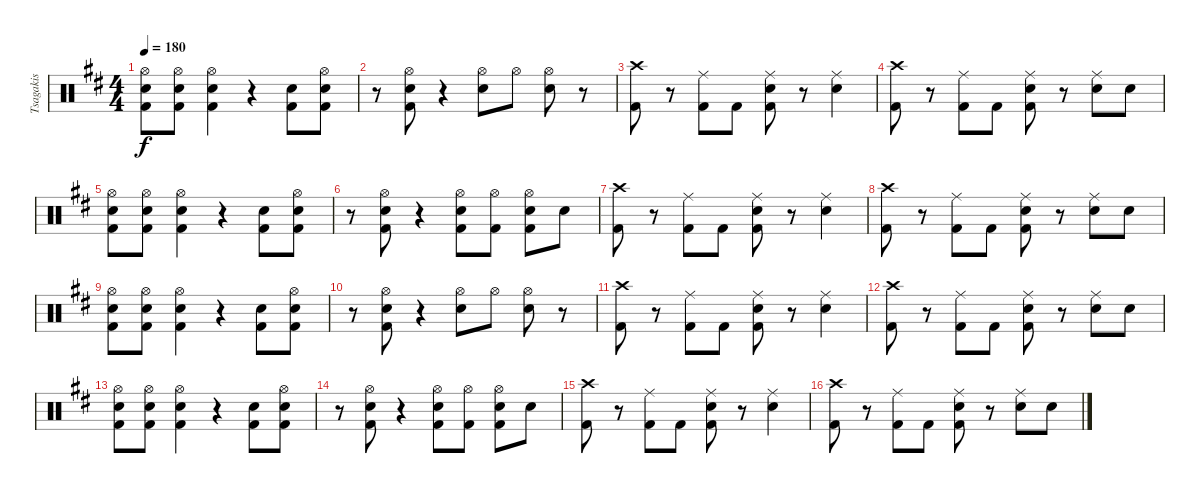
\track ("Tsagakis" "Tsagakis") {instrument percussion}
\staff {score}
\articulation defaults
\ts (4 4)
\tempo 180
\clef neutral
\ks d
("Hi-Hat (open)" "Electric Snare (hit)" "Kick (hit) 2").8{dy f} ("Hi-Hat (open)" "Electric Snare (hit)" "Kick (hit) 2").8 ("Hi-Hat (open)" "Electric Snare (hit)" "Kick (hit) 2").4 r.4 ("Electric Snare (hit)" "Kick (hit) 2").8 ("Hi-Hat (open)" "Electric Snare (hit)" "Kick (hit) 2").8 |
r.8 ("Hi-Hat (open)" "Electric Snare (hit)" "Kick (hit) 2").8 r.4 ("Hi-Hat (open)" "Electric Snare (hit)").8 "Hi-Hat (open)".8 ("Hi-Hat (open)" "Electric Snare (hit)").8 r.8 |
("Crash high (hit)" "Kick (hit) 2").8 r.8 ("Ride (middle)" "Kick (hit) 2").8 "Kick (hit) 2".8 ("Ride (middle)" "Electric Snare (hit)" "Kick (hit) 2").8 r.8 ("Ride (middle)" "Electric Snare (hit)").4 |
("Crash high (hit)" "Kick (hit) 2").8 r.8 ("Ride (middle)" "Kick (hit) 2").8 "Kick (hit) 2".8 ("Ride (middle)" "Electric Snare (hit)" "Kick (hit) 2").8 r.8 ("Ride (middle)" "Electric Snare (hit)").8 "Electric Snare (hit)".8 |
("Hi-Hat (open)" "Electric Snare (hit)" "Kick (hit) 2").8 ("Hi-Hat (open)" "Electric Snare (hit)" "Kick (hit) 2").8 ("Hi-Hat (open)" "Electric Snare (hit)" "Kick (hit) 2").4 r.4 ("Electric Snare (hit)" "Kick (hit) 2").8 ("Hi-Hat (open)" "Electric Snare (hit)" "Kick (hit) 2").8 |
r.8 ("Hi-Hat (open)" "Electric Snare (hit)" "Kick (hit) 2").8 r.4 ("Hi-Hat (open)" "Electric Snare (hit)" "Kick (hit) 2").8 ("Hi-Hat (open)" "Kick (hit) 2").8 ("Hi-Hat (open)" "Electric Snare (hit)" "Kick (hit) 2").8 "Electric Snare (hit)".8 |
("Crash high (hit)" "Kick (hit) 2").8 r.8 ("Ride (middle)" "Kick (hit) 2").8 "Kick (hit) 2".8 ("Ride (middle)" "Electric Snare (hit)" "Kick (hit) 2").8 r.8 ("Ride (middle)" "Electric Snare (hit)").4 |
("Crash high (hit)" "Kick (hit) 2").8 r.8 ("Ride (middle)" "Kick (hit) 2").8 "Kick (hit) 2".8 ("Ride (middle)" "Electric Snare (hit)" "Kick (hit) 2").8 r.8 ("Ride (middle)" "Electric Snare (hit)").8 "Electric Snare (hit)".8 |
("Hi-Hat (open)" "Electric Snare (hit)" "Kick (hit) 2").8 ("Hi-Hat (open)" "Electric Snare (hit)" "Kick (hit) 2").8 ("Hi-Hat (open)" "Electric Snare (hit)" "Kick (hit) 2").4 r.4 ("Electric Snare (hit)" "Kick (hit) 2").8 ("Hi-Hat (open)" "Electric Snare (hit)" "Kick (hit) 2").8 |
r.8 ("Hi-Hat (open)" "Electric Snare (hit)" "Kick (hit) 2").8 r.4 ("Hi-Hat (open)" "Electric Snare (hit)").8 "Hi-Hat (open)".8 ("Hi-Hat (open)" "Electric Snare (hit)").8 r.8 |
("Crash high (hit)" "Kick (hit) 2").8 r.8 ("Ride (middle)" "Kick (hit) 2").8 "Kick (hit) 2".8 ("Ride (middle)" "Electric Snare (hit)" "Kick (hit) 2").8 r.8 ("Ride (middle)" "Electric Snare (hit)").4 |
("Crash high (hit)" "Kick (hit) 2").8 r.8 ("Ride (middle)" "Kick (hit) 2").8 "Kick (hit) 2".8 ("Ride (middle)" "Electric Snare (hit)" "Kick (hit) 2").8 r.8 ("Ride (middle)" "Electric Snare (hit)").8 "Electric Snare (hit)".8 |
("Hi-Hat (open)" "Electric Snare (hit)" "Kick (hit) 2").8 ("Hi-Hat (open)" "Electric Snare (hit)" "Kick (hit) 2").8 ("Hi-Hat (open)" "Electric Snare (hit)" "Kick (hit) 2").4 r.4 ("Electric Snare (hit)" "Kick (hit) 2").8 ("Hi-Hat (open)" "Electric Snare (hit)" "Kick (hit) 2").8 |
r.8 ("Hi-Hat (open)" "Electric Snare (hit)" "Kick (hit) 2").8 r.4 ("Hi-Hat (open)" "Electric Snare (hit)" "Kick (hit) 2").8 ("Hi-Hat (open)" "Kick (hit) 2").8 ("Hi-Hat (open)" "Electric Snare (hit)" "Kick (hit) 2").8 "Electric Snare (hit)".8 |
("Crash high (hit)" "Kick (hit) 2").8 r.8 ("Ride (middle)" "Kick (hit) 2").8 "Kick (hit) 2".8 ("Ride (middle)" "Electric Snare (hit)" "Kick (hit) 2").8 r.8 ("Ride (middle)" "Electric Snare (hit)").4 |
("Crash high (hit)" "Kick (hit) 2").8 r.8 ("Ride (middle)" "Kick (hit) 2").8 "Kick (hit) 2".8 ("Ride (middle)" "Electric Snare (hit)" "Kick (hit) 2").8 r.8 ("Ride (middle)" "Electric Snare (hit)").8 "Electric Snare (hit)".8
